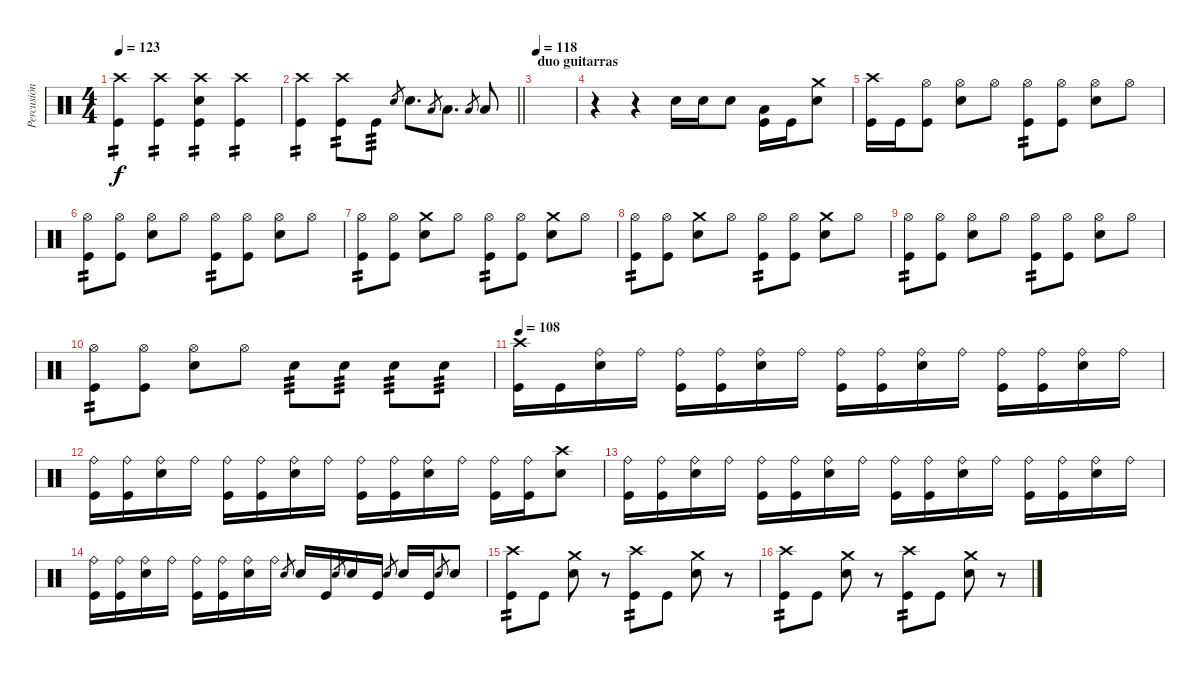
\track ("Percusión" "Percusión") {instrument percussion}
\staff {score}
\articulation defaults
\ts (4 4)
\tempo 123
\clef neutral
\ks aminor
("Crash high (hit)" "Kick (hit)").4{tp 2 dy f} ("Crash high (hit)" "Kick (hit)").4{tp 2} ("Crash high (hit)" "Electric Snare (hit)" "Kick (hit)").4{tp 2} ("Crash high (hit)" "Kick (hit)").4{tp 2} |
\barLineRight lightlight
("Crash high (hit)" "Kick (hit)").4{tp 2} ("Crash high (hit)" "Kick (hit)").8{tp 2} "Kick (hit)".8{tp 3} "Electric Snare (hit)".8{gr} "Electric Snare (hit)".8{d} "Low Tom (hit)".8{gr} "Low Tom (hit)".8{d} "Low Floor Tom (hit)".8{gr} "Low Floor Tom (hit)".8 |
\section ("" "duo guitarras")
\tempo 118
|
r.4 r.4 "Electric Snare (hit)".16 "Electric Snare (hit)".16 "Electric Snare (hit)".8 ("Low Tom (hit)" "Kick (hit)").16 "Kick (hit)".16 ("Crash medium (hit)" "Electric Snare (hit)").8 |
("Crash high (hit)" "Kick (hit)").16 "Kick (hit)".16 ("Hi-Hat (open)" "Kick (hit)").8 ("Electric Snare (hit)" "Hi-Hat (open)").8 "Hi-Hat (open)".8 ("Hi-Hat (open)" "Kick (hit)").8{tp 2} ("Hi-Hat (open)" "Kick (hit)").8 ("Electric Snare (hit)" "Hi-Hat (open)").8 "Hi-Hat (open)".8 |
("Hi-Hat (open)" "Kick (hit)").8{tp 2} ("Hi-Hat (open)" "Kick (hit)").8 ("Electric Snare (hit)" "Hi-Hat (open)").8 "Hi-Hat (open)".8 ("Hi-Hat (open)" "Kick (hit)").8{tp 2} ("Hi-Hat (open)" "Kick (hit)").8 ("Electric Snare (hit)" "Hi-Hat (open)").8 "Hi-Hat (open)".8 |
("Hi-Hat (open)" "Kick (hit)").8{tp 2} ("Hi-Hat (open)" "Kick (hit)").8 ("Electric Snare (hit)" "Crash medium (hit)").8 "Hi-Hat (open)".8 ("Hi-Hat (open)" "Kick (hit)").8{tp 2} ("Hi-Hat (open)" "Kick (hit)").8 ("Electric Snare (hit)" "Crash medium (hit)").8 "Hi-Hat (open)".8 |
("Hi-Hat (open)" "Kick (hit)").8{tp 2} ("Hi-Hat (open)" "Kick (hit)").8 ("Electric Snare (hit)" "Crash medium (hit)").8 "Hi-Hat (open)".8 ("Hi-Hat (open)" "Kick (hit)").8{tp 2} ("Hi-Hat (open)" "Kick (hit)").8 ("Electric Snare (hit)" "Crash medium (hit)").8 "Hi-Hat (open)".8 |
("Hi-Hat (open)" "Kick (hit)").8{tp 2} ("Hi-Hat (open)" "Kick (hit)").8 ("Electric Snare (hit)" "Hi-Hat (open)").8 "Hi-Hat (open)".8 ("Hi-Hat (open)" "Kick (hit)").8{tp 2} ("Hi-Hat (open)" "Kick (hit)").8 ("Electric Snare (hit)" "Hi-Hat (open)").8 "Hi-Hat (open)".8 |
("Hi-Hat (open)" "Kick (hit)").8{tp 2} ("Hi-Hat (open)" "Kick (hit)").8 ("Electric Snare (hit)" "Hi-Hat (open)").8 "Hi-Hat (open)".8 "Electric Snare (hit)".8{tp 3} "Electric Snare (hit)".8{tp 3} "Electric Snare (hit)".8{tp 3} "Electric Snare (hit)".8{tp 3} |
\tempo 108
("Crash high (hit)" "Kick (hit)").16 "Kick (hit)".16 ("Ride (bell)" "Electric Snare (hit)").16 "Ride (bell)".16 ("Ride (bell)" "Kick (hit)").16 ("Ride (bell)" "Kick (hit)").16 ("Ride (bell)" "Electric Snare (hit)").16 "Ride (bell)".16 ("Ride (bell)" "Kick (hit)").16 ("Ride (bell)" "Kick (hit)").16 ("Ride (bell)" "Electric Snare (hit)").16 "Ride (bell)".16 ("Ride (bell)" "Kick (hit)").16 ("Ride (bell)" "Kick (hit)").16 ("Ride (bell)" "Electric Snare (hit)").16 "Ride (bell)".16 |
("Ride (bell)" "Kick (hit)").16 ("Ride (bell)" "Kick (hit)").16 ("Ride (bell)" "Electric Snare (hit)").16 "Ride (bell)".16 ("Ride (bell)" "Kick (hit)").16 ("Ride (bell)" "Kick (hit)").16 ("Ride (bell)" "Electric Snare (hit)").16 "Ride (bell)".16 ("Ride (bell)" "Kick (hit)").16 ("Ride (bell)" "Kick (hit)").16 ("Ride (bell)" "Electric Snare (hit)").16 "Ride (bell)".16 ("Ride (bell)" "Kick (hit)").16 ("Ride (bell)" "Kick (hit)").16 ("Crash high (hit)" "Electric Snare (hit)").8 |
("Ride (bell)" "Kick (hit)").16 ("Ride (bell)" "Kick (hit)").16 ("Ride (bell)" "Electric Snare (hit)").16 "Ride (bell)".16 ("Ride (bell)" "Kick (hit)").16 ("Ride (bell)" "Kick (hit)").16 ("Ride (bell)" "Electric Snare (hit)").16 "Ride (bell)".16 ("Ride (bell)" "Kick (hit)").16 ("Ride (bell)" "Kick (hit)").16 ("Ride (bell)" "Electric Snare (hit)").16 "Ride (bell)".16 ("Ride (bell)" "Kick (hit)").16 ("Ride (bell)" "Kick (hit)").16 ("Ride (bell)" "Electric Snare (hit)").16 "Ride (bell)".16 |
("Ride (bell)" "Kick (hit)").16 ("Ride (bell)" "Kick (hit)").16 ("Ride (bell)" "Electric Snare (hit)").16 "Ride (bell)".16 ("Ride (bell)" "Kick (hit)").16 ("Ride (bell)" "Kick (hit)").16 ("Ride (bell)" "Electric Snare (hit)").16 "Ride (bell)".16 "Electric Snare (hit)".8{gr} "Electric Snare (hit)".16 "Kick (hit)".16 "Electric Snare (hit)".8{gr} "Electric Snare (hit)".16 "Kick (hit)".16 "Electric Snare (hit)".8{gr} "Electric Snare (hit)".16 "Kick (hit)".16 "Electric Snare (hit)".8{gr} "Electric Snare (hit)".8 |
("Crash high (hit)" "Kick (hit)").8{tp 2} "Kick (hit)".8 ("Electric Snare (hit)" "Crash medium (hit)").8 r.8 ("Crash high (hit)" "Kick (hit)").8{tp 2} "Kick (hit)".8 ("Electric Snare (hit)" "Crash medium (hit)").8 r.8 |
("Crash high (hit)" "Kick (hit)").8{tp 2} "Kick (hit)".8 ("Electric Snare (hit)" "Crash medium (hit)").8 r.8 ("Crash high (hit)" "Kick (hit)").8{tp 2} "Kick (hit)".8 ("Electric Snare (hit)" "Crash medium (hit)").8 r.8
